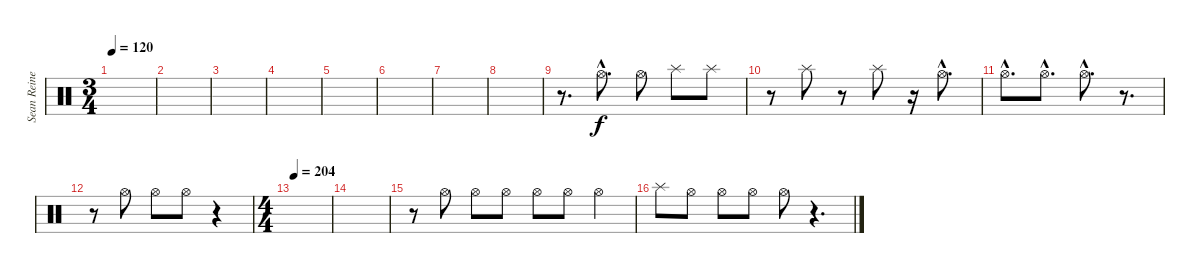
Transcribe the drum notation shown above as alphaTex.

\track ("Sean Reinert" "Sean Reine") {instrument percussion}
\staff {score}
\articulation defaults
\ts (3 4)
\tempo 120
\clef neutral
\ks c
|
|
|
|
|
|
|
|
r.8{d} "Hi-Hat (open)"{hac}.8{d} "Hi-Hat (open)".8 "Splash (hit)".8 "Splash (hit)".8 |
r.8 "Splash (hit)".8 r.8 "Splash (hit)".8 r.16 "Hi-Hat (open)"{hac}.8{d} |
"Hi-Hat (open)"{hac}.8{d} "Hi-Hat (open)"{hac}.8{d} "Hi-Hat (open)"{hac}.8{d} r.8{d} |
r.8 "Hi-Hat (open)".8 "Hi-Hat (open)".8 "Hi-Hat (open)".8 r.4 |
\ts (4 4)
\tempo 204
|
|
r.8 "Hi-Hat (open)".8 "Hi-Hat (open)".8 "Hi-Hat (open)".8 "Hi-Hat (open)".8 "Hi-Hat (open)".8 "Hi-Hat (open)".4 |
"Splash (hit)".8 "Hi-Hat (open)".8 "Hi-Hat (open)".8 "Hi-Hat (open)".8 "Hi-Hat (open)".8 r.4{d}
